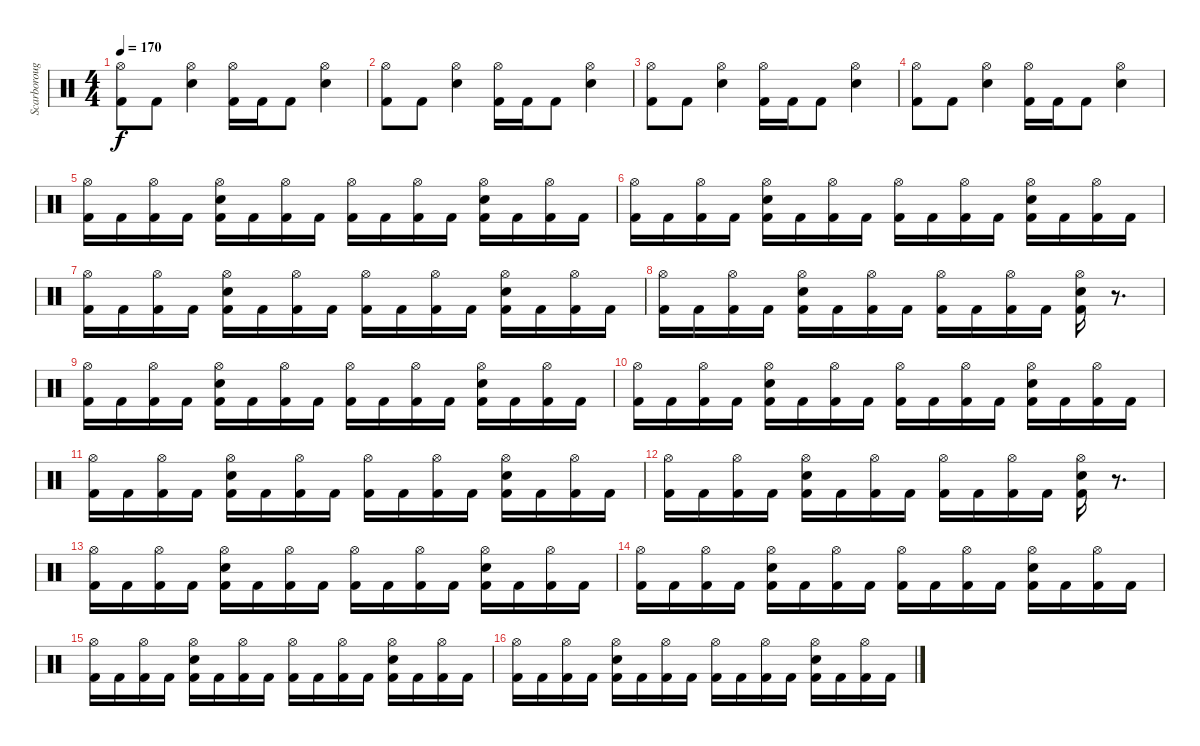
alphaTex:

\track ("Scarborough" "Scarboroug") {instrument percussion}
\staff {score}
\articulation defaults
\ts (4 4)
\tempo 170
\clef neutral
\ks c
("Hi-Hat (open)" "Kick (hit) 2").8{dy f} "Kick (hit) 2".8 ("Hi-Hat (open)" "Snare (hit) 2").4 ("Hi-Hat (open)" "Kick (hit) 2").16 "Kick (hit) 2".16 "Kick (hit) 2".8 ("Hi-Hat (open)" "Snare (hit) 2").4 |
("Hi-Hat (open)" "Kick (hit) 2").8 "Kick (hit) 2".8 ("Hi-Hat (open)" "Snare (hit) 2").4 ("Hi-Hat (open)" "Kick (hit) 2").16 "Kick (hit) 2".16 "Kick (hit) 2".8 ("Hi-Hat (open)" "Snare (hit) 2").4 |
("Hi-Hat (open)" "Kick (hit) 2").8 "Kick (hit) 2".8 ("Hi-Hat (open)" "Snare (hit) 2").4 ("Hi-Hat (open)" "Kick (hit) 2").16 "Kick (hit) 2".16 "Kick (hit) 2".8 ("Hi-Hat (open)" "Snare (hit) 2").4 |
("Hi-Hat (open)" "Kick (hit) 2").8 "Kick (hit) 2".8 ("Hi-Hat (open)" "Snare (hit) 2").4 ("Hi-Hat (open)" "Kick (hit) 2").16 "Kick (hit) 2".16 "Kick (hit) 2".8 ("Hi-Hat (open)" "Snare (hit) 2").4 |
("Hi-Hat (open)" "Kick (hit) 2").16 "Kick (hit) 2".16 ("Hi-Hat (open)" "Kick (hit) 2").16 "Kick (hit) 2".16 ("Hi-Hat (open)" "Kick (hit) 2" "Snare (hit) 2").16 "Kick (hit) 2".16 ("Hi-Hat (open)" "Kick (hit) 2").16 "Kick (hit) 2".16 ("Hi-Hat (open)" "Kick (hit) 2").16 "Kick (hit) 2".16 ("Hi-Hat (open)" "Kick (hit) 2").16 "Kick (hit) 2".16 ("Hi-Hat (open)" "Kick (hit) 2" "Snare (hit) 2").16 "Kick (hit) 2".16 ("Hi-Hat (open)" "Kick (hit) 2").16 "Kick (hit) 2".16 |
("Hi-Hat (open)" "Kick (hit) 2").16 "Kick (hit) 2".16 ("Hi-Hat (open)" "Kick (hit) 2").16 "Kick (hit) 2".16 ("Hi-Hat (open)" "Kick (hit) 2" "Snare (hit) 2").16 "Kick (hit) 2".16 ("Hi-Hat (open)" "Kick (hit) 2").16 "Kick (hit) 2".16 ("Hi-Hat (open)" "Kick (hit) 2").16 "Kick (hit) 2".16 ("Hi-Hat (open)" "Kick (hit) 2").16 "Kick (hit) 2".16 ("Hi-Hat (open)" "Kick (hit) 2" "Snare (hit) 2").16 "Kick (hit) 2".16 ("Hi-Hat (open)" "Kick (hit) 2").16 "Kick (hit) 2".16 |
("Hi-Hat (open)" "Kick (hit) 2").16 "Kick (hit) 2".16 ("Hi-Hat (open)" "Kick (hit) 2").16 "Kick (hit) 2".16 ("Hi-Hat (open)" "Kick (hit) 2" "Snare (hit) 2").16 "Kick (hit) 2".16 ("Hi-Hat (open)" "Kick (hit) 2").16 "Kick (hit) 2".16 ("Hi-Hat (open)" "Kick (hit) 2").16 "Kick (hit) 2".16 ("Hi-Hat (open)" "Kick (hit) 2").16 "Kick (hit) 2".16 ("Hi-Hat (open)" "Kick (hit) 2" "Snare (hit) 2").16 "Kick (hit) 2".16 ("Hi-Hat (open)" "Kick (hit) 2").16 "Kick (hit) 2".16 |
("Hi-Hat (open)" "Kick (hit) 2").16 "Kick (hit) 2".16 ("Hi-Hat (open)" "Kick (hit) 2").16 "Kick (hit) 2".16 ("Hi-Hat (open)" "Kick (hit) 2" "Snare (hit) 2").16 "Kick (hit) 2".16 ("Hi-Hat (open)" "Kick (hit) 2").16 "Kick (hit) 2".16 ("Hi-Hat (open)" "Kick (hit) 2").16 "Kick (hit) 2".16 ("Hi-Hat (open)" "Kick (hit) 2").16 "Kick (hit) 2".16 ("Hi-Hat (open)" "Kick (hit) 2" "Snare (hit) 2").16 r.8{d} |
("Hi-Hat (open)" "Kick (hit) 2").16 "Kick (hit) 2".16 ("Hi-Hat (open)" "Kick (hit) 2").16 "Kick (hit) 2".16 ("Hi-Hat (open)" "Kick (hit) 2" "Snare (hit) 2").16 "Kick (hit) 2".16 ("Hi-Hat (open)" "Kick (hit) 2").16 "Kick (hit) 2".16 ("Hi-Hat (open)" "Kick (hit) 2").16 "Kick (hit) 2".16 ("Hi-Hat (open)" "Kick (hit) 2").16 "Kick (hit) 2".16 ("Hi-Hat (open)" "Kick (hit) 2" "Snare (hit) 2").16 "Kick (hit) 2".16 ("Hi-Hat (open)" "Kick (hit) 2").16 "Kick (hit) 2".16 |
("Hi-Hat (open)" "Kick (hit) 2").16 "Kick (hit) 2".16 ("Hi-Hat (open)" "Kick (hit) 2").16 "Kick (hit) 2".16 ("Hi-Hat (open)" "Kick (hit) 2" "Snare (hit) 2").16 "Kick (hit) 2".16 ("Hi-Hat (open)" "Kick (hit) 2").16 "Kick (hit) 2".16 ("Hi-Hat (open)" "Kick (hit) 2").16 "Kick (hit) 2".16 ("Hi-Hat (open)" "Kick (hit) 2").16 "Kick (hit) 2".16 ("Hi-Hat (open)" "Kick (hit) 2" "Snare (hit) 2").16 "Kick (hit) 2".16 ("Hi-Hat (open)" "Kick (hit) 2").16 "Kick (hit) 2".16 |
("Hi-Hat (open)" "Kick (hit) 2").16 "Kick (hit) 2".16 ("Hi-Hat (open)" "Kick (hit) 2").16 "Kick (hit) 2".16 ("Hi-Hat (open)" "Kick (hit) 2" "Snare (hit) 2").16 "Kick (hit) 2".16 ("Hi-Hat (open)" "Kick (hit) 2").16 "Kick (hit) 2".16 ("Hi-Hat (open)" "Kick (hit) 2").16 "Kick (hit) 2".16 ("Hi-Hat (open)" "Kick (hit) 2").16 "Kick (hit) 2".16 ("Hi-Hat (open)" "Kick (hit) 2" "Snare (hit) 2").16 "Kick (hit) 2".16 ("Hi-Hat (open)" "Kick (hit) 2").16 "Kick (hit) 2".16 |
("Hi-Hat (open)" "Kick (hit) 2").16 "Kick (hit) 2".16 ("Hi-Hat (open)" "Kick (hit) 2").16 "Kick (hit) 2".16 ("Hi-Hat (open)" "Kick (hit) 2" "Snare (hit) 2").16 "Kick (hit) 2".16 ("Hi-Hat (open)" "Kick (hit) 2").16 "Kick (hit) 2".16 ("Hi-Hat (open)" "Kick (hit) 2").16 "Kick (hit) 2".16 ("Hi-Hat (open)" "Kick (hit) 2").16 "Kick (hit) 2".16 ("Hi-Hat (open)" "Kick (hit) 2" "Snare (hit) 2").16 r.8{d} |
("Hi-Hat (open)" "Kick (hit) 2").16 "Kick (hit) 2".16 ("Hi-Hat (open)" "Kick (hit) 2").16 "Kick (hit) 2".16 ("Hi-Hat (open)" "Kick (hit) 2" "Snare (hit) 2").16 "Kick (hit) 2".16 ("Hi-Hat (open)" "Kick (hit) 2").16 "Kick (hit) 2".16 ("Hi-Hat (open)" "Kick (hit) 2").16 "Kick (hit) 2".16 ("Hi-Hat (open)" "Kick (hit) 2").16 "Kick (hit) 2".16 ("Hi-Hat (open)" "Kick (hit) 2" "Snare (hit) 2").16 "Kick (hit) 2".16 ("Hi-Hat (open)" "Kick (hit) 2").16 "Kick (hit) 2".16 |
("Hi-Hat (open)" "Kick (hit) 2").16 "Kick (hit) 2".16 ("Hi-Hat (open)" "Kick (hit) 2").16 "Kick (hit) 2".16 ("Hi-Hat (open)" "Kick (hit) 2" "Snare (hit) 2").16 "Kick (hit) 2".16 ("Hi-Hat (open)" "Kick (hit) 2").16 "Kick (hit) 2".16 ("Hi-Hat (open)" "Kick (hit) 2").16 "Kick (hit) 2".16 ("Hi-Hat (open)" "Kick (hit) 2").16 "Kick (hit) 2".16 ("Hi-Hat (open)" "Kick (hit) 2" "Snare (hit) 2").16 "Kick (hit) 2".16 ("Hi-Hat (open)" "Kick (hit) 2").16 "Kick (hit) 2".16 |
("Hi-Hat (open)" "Kick (hit) 2").16 "Kick (hit) 2".16 ("Hi-Hat (open)" "Kick (hit) 2").16 "Kick (hit) 2".16 ("Hi-Hat (open)" "Kick (hit) 2" "Snare (hit) 2").16 "Kick (hit) 2".16 ("Hi-Hat (open)" "Kick (hit) 2").16 "Kick (hit) 2".16 ("Hi-Hat (open)" "Kick (hit) 2").16 "Kick (hit) 2".16 ("Hi-Hat (open)" "Kick (hit) 2").16 "Kick (hit) 2".16 ("Hi-Hat (open)" "Kick (hit) 2" "Snare (hit) 2").16 "Kick (hit) 2".16 ("Hi-Hat (open)" "Kick (hit) 2").16 "Kick (hit) 2".16 |
("Hi-Hat (open)" "Kick (hit) 2").16 "Kick (hit) 2".16 ("Hi-Hat (open)" "Kick (hit) 2").16 "Kick (hit) 2".16 ("Hi-Hat (open)" "Kick (hit) 2" "Snare (hit) 2").16 "Kick (hit) 2".16 ("Hi-Hat (open)" "Kick (hit) 2").16 "Kick (hit) 2".16 ("Hi-Hat (open)" "Kick (hit) 2").16 "Kick (hit) 2".16 ("Hi-Hat (open)" "Kick (hit) 2").16 "Kick (hit) 2".16 ("Hi-Hat (open)" "Kick (hit) 2" "Snare (hit) 2").16 "Kick (hit) 2".16 ("Hi-Hat (open)" "Kick (hit) 2").16 "Kick (hit) 2".16
